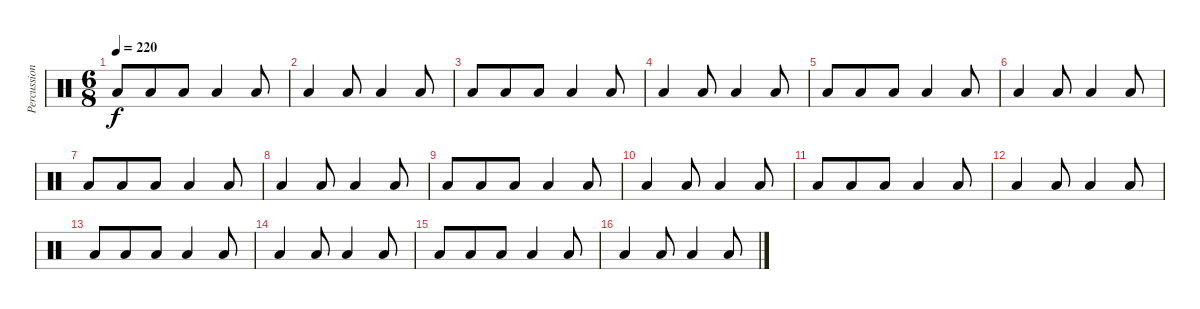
\track ("Percussion" "Percussion") {instrument percussion}
\staff {score}
\articulation defaults
\ts (6 8)
\tempo 220
\clef neutral
\ks c "Low Floor Tom (hit)".8{dy f} "Low Floor Tom (hit)".8 "Low Floor Tom (hit)".8 "Low Tom (hit)".4 "Low Tom (hit)".8
|
"Low Floor Tom (hit)".4 "Low Floor Tom (hit)".8 "Low Tom (hit)".4 "Low Tom (hit)".8 |
"Low Floor Tom (hit)".8{volume 5} "Low Floor Tom (hit)".8 "Low Floor Tom (hit)".8 "Low Tom (hit)".4 "Low Tom (hit)".8 |
"Low Floor Tom (hit)".4 "Low Floor Tom (hit)".8 "Low Tom (hit)".4 "Low Tom (hit)".8 |
"Low Floor Tom (hit)".8 "Low Floor Tom (hit)".8 "Low Floor Tom (hit)".8 "Low Tom (hit)".4 "Low Tom (hit)".8 |
"Low Floor Tom (hit)".4 "Low Floor Tom (hit)".8 "Low Tom (hit)".4 "Low Tom (hit)".8 |
"Low Floor Tom (hit)".8 "Low Floor Tom (hit)".8 "Low Floor Tom (hit)".8 "Low Tom (hit)".4 "Low Tom (hit)".8 |
"Low Floor Tom (hit)".4 "Low Floor Tom (hit)".8 "Low Tom (hit)".4 "Low Tom (hit)".8 |
"Low Floor Tom (hit)".8 "Low Floor Tom (hit)".8 "Low Floor Tom (hit)".8 "Low Tom (hit)".4 "Low Tom (hit)".8 |
"Low Floor Tom (hit)".4 "Low Floor Tom (hit)".8 "Low Tom (hit)".4 "Low Tom (hit)".8 |
"Low Floor Tom (hit)".8{volume 5} "Low Floor Tom (hit)".8 "Low Floor Tom (hit)".8 "Low Tom (hit)".4 "Low Tom (hit)".8 |
"Low Floor Tom (hit)".4 "Low Floor Tom (hit)".8 "Low Tom (hit)".4 "Low Tom (hit)".8 |
"Low Floor Tom (hit)".8 "Low Floor Tom (hit)".8 "Low Floor Tom (hit)".8 "Low Tom (hit)".4 "Low Tom (hit)".8 |
"Low Floor Tom (hit)".4 "Low Floor Tom (hit)".8 "Low Tom (hit)".4 "Low Tom (hit)".8 |
"Low Floor Tom (hit)".8{volume 3} "Low Floor Tom (hit)".8 "Low Floor Tom (hit)".8 "Low Tom (hit)".4 "Low Tom (hit)".8 |
"Low Floor Tom (hit)".4 "Low Floor Tom (hit)".8 "Low Tom (hit)".4 "Low Tom (hit)".8
